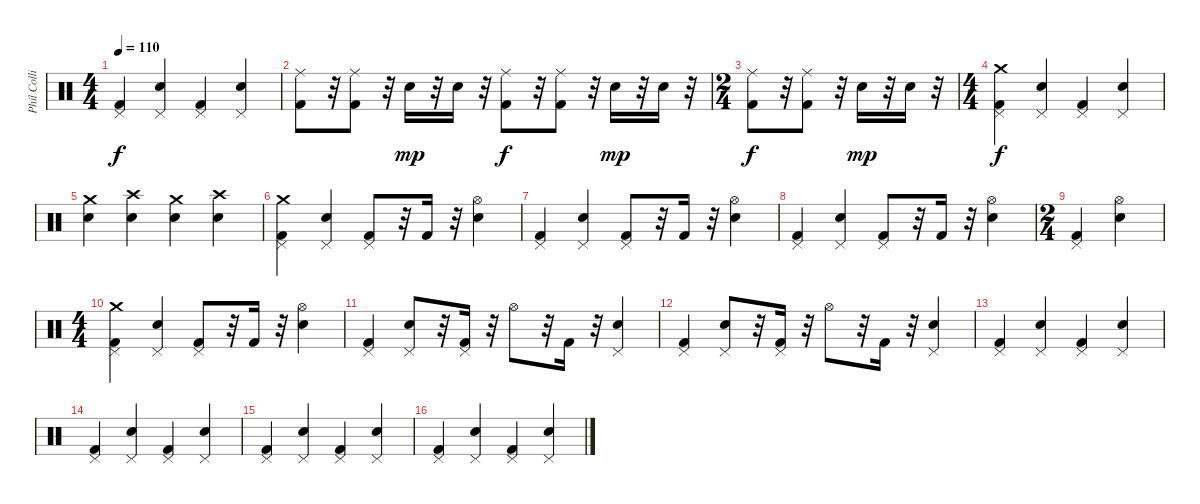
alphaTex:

\track ("Phil Collins (drums)" "Phil Colli") {instrument percussion}
\staff {score}
\articulation defaults
\ts (4 4)
\tempo 110
\clef neutral
\ks c
("Pedal Hi-Hat (hit)" "Kick (hit) 2").4{dy f} ("Pedal Hi-Hat (hit)" "Electric Snare (hit)").4 ("Pedal Hi-Hat (hit)" "Kick (hit) 2").4 ("Pedal Hi-Hat (hit)" "Electric Snare (hit)").4 |
("Ride (middle)" "Kick (hit) 2").8 r.32 ("Ride (middle)" "Kick (hit) 2").8 r.32 "Electric Snare (hit)".16{dy mp} r.32 "Electric Snare (hit)".16 r.32 ("Ride (middle)" "Kick (hit) 2").8{dy f} r.32 ("Ride (middle)" "Kick (hit) 2").8 r.32 "Electric Snare (hit)".16{dy mp} r.32 "Electric Snare (hit)".16 r.32 |
\ts (2 4)
("Ride (middle)" "Kick (hit) 2").8{dy f} r.32 ("Ride (middle)" "Kick (hit) 2").8 r.32 "Electric Snare (hit)".16{dy mp} r.32 "Electric Snare (hit)".16 r.32 |
\ts (4 4)
("Crash medium (hit)" "Pedal Hi-Hat (hit)" "Kick (hit) 2").4{dy f} ("Pedal Hi-Hat (hit)" "Electric Snare (hit)").4 ("Pedal Hi-Hat (hit)" "Kick (hit) 2").4 ("Pedal Hi-Hat (hit)" "Electric Snare (hit)").4 |
("Crash medium (hit)" "Electric Snare (hit)").4 ("Crash high (hit)" "Electric Snare (hit)").4 ("Crash medium (hit)" "Electric Snare (hit)").4 ("Crash high (hit)" "Electric Snare (hit)").4 |
("Crash medium (hit)" "Pedal Hi-Hat (hit)" "Kick (hit) 2").4 ("Pedal Hi-Hat (hit)" "Electric Snare (hit)").4 ("Pedal Hi-Hat (hit)" "Kick (hit) 2").8 r.32 "Kick (hit) 2".16 r.32 ("Hi-Hat (open)" "Electric Snare (hit)").4 |
("Pedal Hi-Hat (hit)" "Kick (hit) 2").4 ("Pedal Hi-Hat (hit)" "Electric Snare (hit)").4 ("Pedal Hi-Hat (hit)" "Kick (hit) 2").8 r.32 "Kick (hit) 2".16 r.32 ("Hi-Hat (open)" "Electric Snare (hit)").4 |
("Pedal Hi-Hat (hit)" "Kick (hit) 2").4 ("Pedal Hi-Hat (hit)" "Electric Snare (hit)").4 ("Pedal Hi-Hat (hit)" "Kick (hit) 2").8 r.32 "Kick (hit) 2".16 r.32 ("Hi-Hat (open)" "Electric Snare (hit)").4 |
\ts (2 4)
("Pedal Hi-Hat (hit)" "Kick (hit) 2").4 ("Hi-Hat (open)" "Electric Snare (hit)").4 |
\ts (4 4)
("Crash medium (hit)" "Pedal Hi-Hat (hit)" "Kick (hit) 2").4 ("Pedal Hi-Hat (hit)" "Electric Snare (hit)").4 ("Pedal Hi-Hat (hit)" "Kick (hit) 2").8 r.32 "Kick (hit) 2".16 r.32 ("Hi-Hat (open)" "Electric Snare (hit)").4 |
("Pedal Hi-Hat (hit)" "Kick (hit) 2").4 ("Pedal Hi-Hat (hit)" "Electric Snare (hit)").8 r.32 ("Pedal Hi-Hat (hit)" "Kick (hit) 2").16 r.32 "Hi-Hat (open)".8 r.32 "Kick (hit) 2".16 r.32 ("Pedal Hi-Hat (hit)" "Electric Snare (hit)").4 |
("Pedal Hi-Hat (hit)" "Kick (hit) 2").4 ("Pedal Hi-Hat (hit)" "Electric Snare (hit)").8 r.32 ("Pedal Hi-Hat (hit)" "Kick (hit) 2").16 r.32 "Hi-Hat (open)".8 r.32 "Kick (hit) 2".16 r.32 ("Pedal Hi-Hat (hit)" "Electric Snare (hit)").4 |
("Pedal Hi-Hat (hit)" "Kick (hit) 2").4 ("Pedal Hi-Hat (hit)" "Electric Snare (hit)").4 ("Pedal Hi-Hat (hit)" "Kick (hit) 2").4 ("Pedal Hi-Hat (hit)" "Electric Snare (hit)").4 |
("Pedal Hi-Hat (hit)" "Kick (hit) 2").4 ("Pedal Hi-Hat (hit)" "Electric Snare (hit)").4 ("Pedal Hi-Hat (hit)" "Kick (hit) 2").4 ("Pedal Hi-Hat (hit)" "Electric Snare (hit)").4 |
("Pedal Hi-Hat (hit)" "Kick (hit) 2").4 ("Pedal Hi-Hat (hit)" "Electric Snare (hit)").4 ("Pedal Hi-Hat (hit)" "Kick (hit) 2").4 ("Pedal Hi-Hat (hit)" "Electric Snare (hit)").4 |
("Pedal Hi-Hat (hit)" "Kick (hit) 2").4 ("Pedal Hi-Hat (hit)" "Electric Snare (hit)").4 ("Pedal Hi-Hat (hit)" "Kick (hit) 2").4 ("Pedal Hi-Hat (hit)" "Electric Snare (hit)").4
